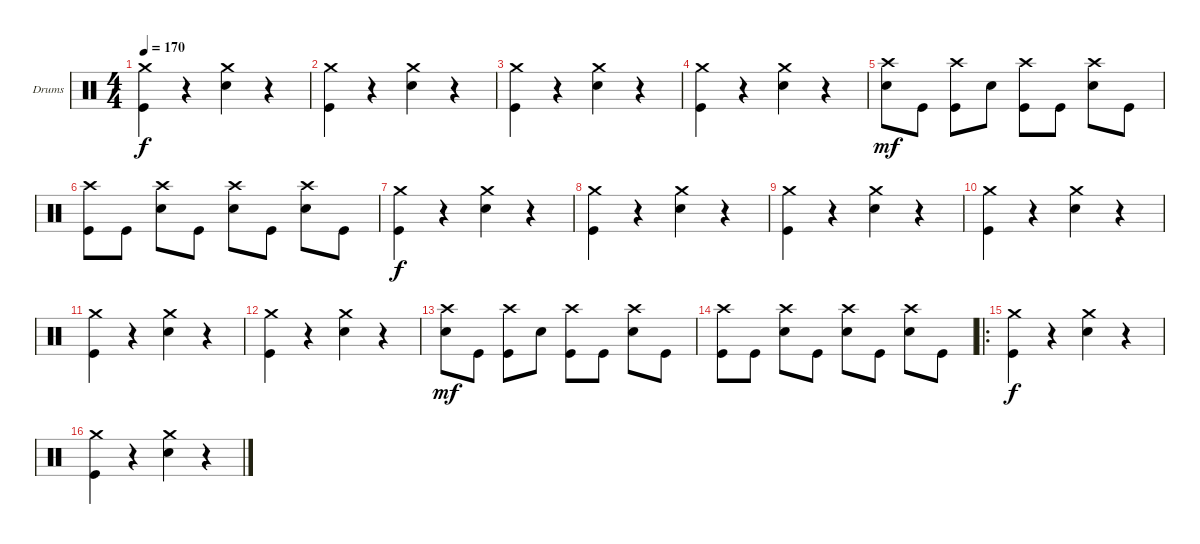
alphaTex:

\defaultSystemsLayout 4
\bracketExtendMode groupsimilarinstruments
\firstSystemTrackNameOrientation horizontal
\otherSystemsTrackNameOrientation horizontal
\track ("Drumkit" "Drums") {instrument percussion}
\staff {score}
\articulation defaults
\ts (4 4)
\tempo 170
\clef neutral
\scale
0.333333
\ks c
("Crash medium (hit)" "Kick (hit)").4{dy f} r.4 ("Crash medium (hit)" "Snare (hit) 2").4 r.4 |
\scale
0.333333 ("Crash medium (hit)" "Kick (hit)").4 r.4 ("Crash medium (hit)" "Snare (hit) 2").4 r.4 |
\scale
0.333333 ("Crash medium (hit)" "Kick (hit)").4 r.4 ("Crash medium (hit)" "Snare (hit) 2").4 r.4 |
\scale
0.333333 ("Crash medium (hit)" "Kick (hit)").4 r.4 ("Crash medium (hit)" "Snare (hit) 2").4 r.4 |
\scale
0.333333 ("Snare (hit) 2" "Crash high (hit)").8{dy mf} "Kick (hit)".8 ("Kick (hit)" "Crash high (hit)").8 "Snare (hit) 2".8 ("Kick (hit)" "Crash high (hit)").8 "Kick (hit)".8 ("Snare (hit) 2" "Crash high (hit)").8 "Kick (hit)".8 |
\scale
0.333333 ("Kick (hit)" "Crash high (hit)").8 "Kick (hit)".8 ("Snare (hit) 2" "Crash high (hit)").8 "Kick (hit)".8 ("Snare (hit) 2" "Crash high (hit)").8 "Kick (hit)".8 ("Snare (hit) 2" "Crash high (hit)").8 "Kick (hit)".8 |
\scale
0.333333 ("Crash medium (hit)" "Kick (hit)").4{dy f} r.4 ("Crash medium (hit)" "Snare (hit) 2").4 r.4 |
\scale
0.333333 ("Crash medium (hit)" "Kick (hit)").4 r.4 ("Crash medium (hit)" "Snare (hit) 2").4 r.4 |
\scale
0.333333 ("Crash medium (hit)" "Kick (hit)").4 r.4 ("Crash medium (hit)" "Snare (hit) 2").4 r.4 |
\scale
0.333333 ("Crash medium (hit)" "Kick (hit)").4 r.4 ("Crash medium (hit)" "Snare (hit) 2").4 r.4 |
\scale
0.333333 ("Crash medium (hit)" "Kick (hit)").4 r.4 ("Crash medium (hit)" "Snare (hit) 2").4 r.4 |
\scale
0.333333 ("Crash medium (hit)" "Kick (hit)").4 r.4 ("Crash medium (hit)" "Snare (hit) 2").4 r.4 |
\scale
0.333333 ("Snare (hit) 2" "Crash high (hit)").8{dy mf} "Kick (hit)".8 ("Kick (hit)" "Crash high (hit)").8 "Snare (hit) 2".8 ("Kick (hit)" "Crash high (hit)").8 "Kick (hit)".8 ("Snare (hit) 2" "Crash high (hit)").8 "Kick (hit)".8 |
("Kick (hit)" "Crash high (hit)").8 "Kick (hit)".8 ("Snare (hit) 2" "Crash high (hit)").8 "Kick (hit)".8 ("Snare (hit) 2" "Crash high (hit)").8 "Kick (hit)".8 ("Snare (hit) 2" "Crash high (hit)").8 "Kick (hit)".8 |
\ro
("Crash medium (hit)" "Kick (hit)").4{dy f} r.4 ("Crash medium (hit)" "Snare (hit) 2").4 r.4 |
("Crash medium (hit)" "Kick (hit)").4 r.4 ("Crash medium (hit)" "Snare (hit) 2").4 r.4
